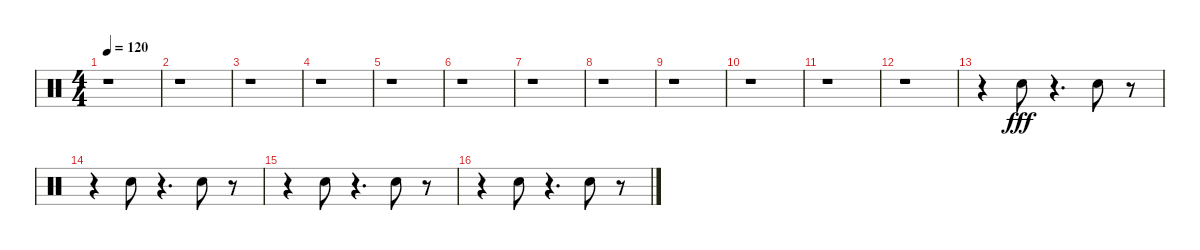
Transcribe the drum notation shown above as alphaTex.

\track "" {instrument percussion}
\staff {score}
\articulation defaults
\ts (4 4)
\tempo 120
\clef neutral
\ks c
r.1{dy fff} |
r.1 |
r.1 |
r.1 |
r.1 |
r.1 |
r.1 |
r.1 |
r.1 |
r.1 |
r.1 |
r.1 |
r.4 "Hand Clap (hit)".8 r.4{d} "Hand Clap (hit)".8 r.8 |
r.4 "Hand Clap (hit)".8 r.4{d} "Hand Clap (hit)".8 r.8 |
r.4 "Hand Clap (hit)".8 r.4{d} "Hand Clap (hit)".8 r.8 |
r.4 "Hand Clap (hit)".8 r.4{d} "Hand Clap (hit)".8 r.8
